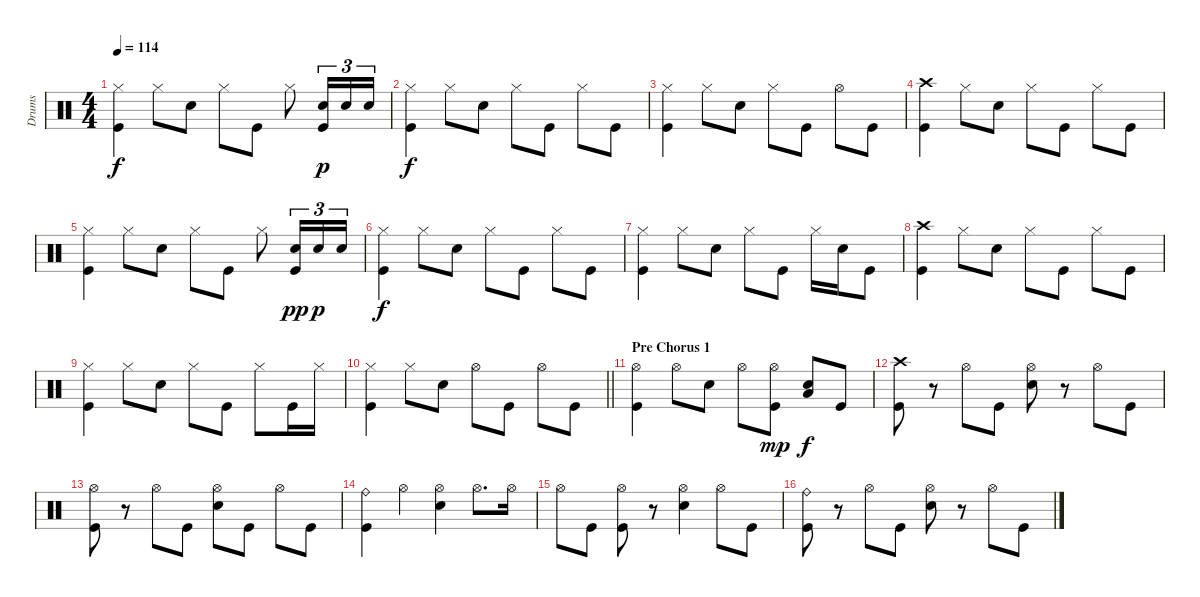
\track ("Drums" "Drums") {instrument percussion}
\staff {score}
\articulation defaults
\ts (4 4)
\tempo 114
\clef neutral
\ks c
("Hi-Hat (closed)" "Kick (hit)").4{dy f} "Hi-Hat (closed)".8 "Electric Snare (hit)".8 "Hi-Hat (closed)".8 "Kick (hit)".8 "Hi-Hat (closed)".8 ("Electric Snare (hit)" "Kick (hit)").16{tu (3 2) dy p} "Electric Snare (hit)".16{tu (3 2)} "Electric Snare (hit)".16{tu (3 2)} |
("Hi-Hat (closed)" "Kick (hit)").4{dy f} "Hi-Hat (closed)".8 "Electric Snare (hit)".8 "Hi-Hat (closed)".8 "Kick (hit)".8 "Hi-Hat (closed)".8 "Kick (hit)".8 |
("Hi-Hat (closed)" "Kick (hit)").4 "Hi-Hat (closed)".8 "Electric Snare (hit)".8 "Hi-Hat (closed)".8 "Kick (hit)".8 "Hi-Hat (open)".8 "Kick (hit)".8 |
("Crash high (hit)" "Kick (hit)").4 "Hi-Hat (closed)".8 "Electric Snare (hit)".8 "Hi-Hat (closed)".8 "Kick (hit)".8 "Hi-Hat (closed)".8 "Kick (hit)".8 |
("Hi-Hat (closed)" "Kick (hit)").4 "Hi-Hat (closed)".8 "Electric Snare (hit)".8 "Hi-Hat (closed)".8 "Kick (hit)".8 "Hi-Hat (closed)".8 ("Electric Snare (hit)" "Kick (hit)").16{tu (3 2) dy pp} "Electric Snare (hit)".16{tu (3 2) dy p} "Electric Snare (hit)".16{tu (3 2)} |
("Hi-Hat (closed)" "Kick (hit)").4{dy f} "Hi-Hat (closed)".8 "Electric Snare (hit)".8 "Hi-Hat (closed)".8 "Kick (hit)".8 "Hi-Hat (closed)".8 "Kick (hit)".8 |
("Hi-Hat (closed)" "Kick (hit)").4 "Hi-Hat (closed)".8 "Electric Snare (hit)".8 "Hi-Hat (closed)".8 "Kick (hit)".8 "Hi-Hat (closed)".16 "Electric Snare (hit)".16 "Kick (hit)".8 |
("Crash high (hit)" "Kick (hit)").4 "Hi-Hat (closed)".8 "Electric Snare (hit)".8 "Hi-Hat (closed)".8 "Kick (hit)".8 "Hi-Hat (closed)".8 "Kick (hit)".8 |
("Hi-Hat (closed)" "Kick (hit)").4 "Hi-Hat (closed)".8 "Electric Snare (hit)".8 "Hi-Hat (closed)".8 "Kick (hit)".8 "Hi-Hat (closed)".8 "Kick (hit)".16 "Hi-Hat (closed)".16 |
\barLineRight lightlight
("Hi-Hat (closed)" "Kick (hit)").4 "Hi-Hat (closed)".8 "Electric Snare (hit)".8 "Hi-Hat (open)".8 "Kick (hit)".8 "Hi-Hat (open)".8 "Kick (hit)".8 |
\section ("" "Pre Chorus 1")
("Hi-Hat (open)" "Kick (hit)").4 "Hi-Hat (open)".8 "Electric Snare (hit)".8 "Hi-Hat (open)".8 ("Hi-Hat (open)" "Kick (hit)").8{dy mp} ("Electric Snare (hit)" "Low Floor Tom (hit)").8{dy f} "Kick (hit)".8 |
("Crash high (hit)" "Kick (hit)").8 r.8 "Hi-Hat (open)".8 "Kick (hit)".8 ("Hi-Hat (open)" "Electric Snare (hit)").8 r.8 "Hi-Hat (open)".8 "Kick (hit)".8 |
("Hi-Hat (open)" "Kick (hit)").8 r.8 "Hi-Hat (open)".8 "Kick (hit)".8 ("Hi-Hat (open)" "Electric Snare (hit)").8 "Kick (hit)".8 "Hi-Hat (open)".8 "Kick (hit)".8 |
("Ride (bell)" "Kick (hit)").4 "Hi-Hat (open)".4 ("Hi-Hat (open)" "Electric Snare (hit)").4 "Hi-Hat (open)".8{d} "Hi-Hat (open)".16 |
"Hi-Hat (open)".8 "Kick (hit)".8 ("Hi-Hat (open)" "Kick (hit)").8 r.8 ("Hi-Hat (open)" "Electric Snare (hit)").4 "Hi-Hat (open)".8 "Kick (hit)".8 |
("Ride (bell)" "Kick (hit)").8 r.8 "Hi-Hat (open)".8 "Kick (hit)".8 ("Hi-Hat (open)" "Electric Snare (hit)").8 r.8 "Hi-Hat (open)".8 "Kick (hit)".8
